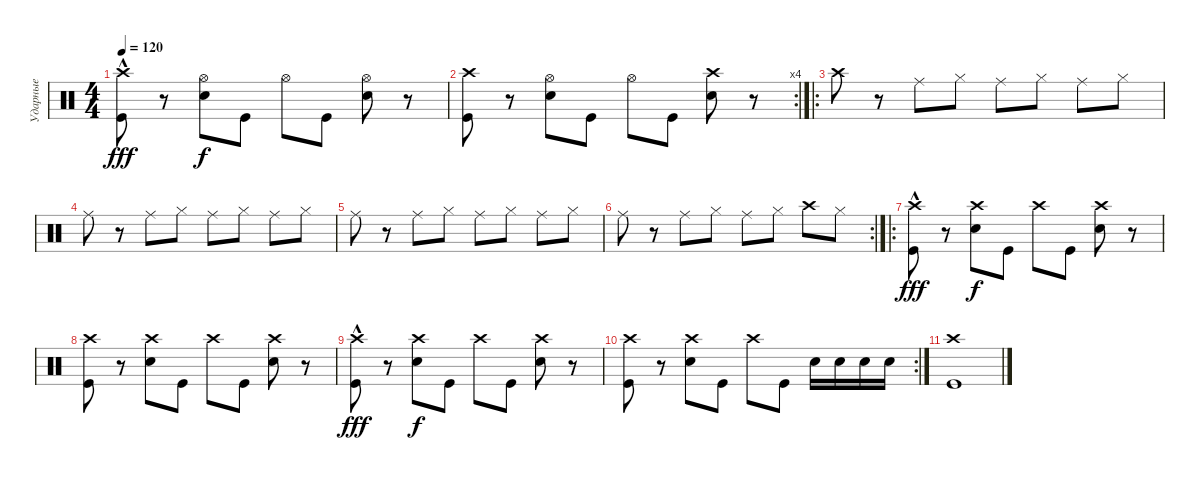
\track ("Ударные" "Ударные") {instrument percussion}
\staff {score}
\articulation defaults
\ts (4 4)
\tempo 120
\clef neutral
\ks c
("Kick (hit)" "Crash high (hit)"{hac}).8{dy fff} r.8 ("Snare (hit) 2" "Hi-Hat (open)").8{dy f} "Kick (hit)".8 "Hi-Hat (open)".8 "Kick (hit)".8 ("Snare (hit) 2" "Hi-Hat (open)").8 r.8 |
\rc 4
("Kick (hit)" "Crash high (hit)").8 r.8 ("Snare (hit) 2" "Hi-Hat (open)").8 "Kick (hit)".8 "Hi-Hat (open)".8 "Kick (hit)".8 ("Snare (hit) 2" "Crash high (hit)").8 r.8 |
\ro "Crash high (hit)".8
r.8 "Ride (middle)".8 "Hi-Hat (closed)".8 "Ride (middle)".8 "Hi-Hat (closed)".8 "Ride (middle)".8 "Hi-Hat (closed)".8 |
"Ride (middle)".8 r.8 "Ride (middle)".8 "Hi-Hat (closed)".8 "Ride (middle)".8 "Hi-Hat (closed)".8 "Ride (middle)".8 "Hi-Hat (closed)".8 |
"Ride (middle)".8 r.8 "Ride (middle)".8 "Hi-Hat (closed)".8 "Ride (middle)".8 "Hi-Hat (closed)".8 "Ride (middle)".8 "Hi-Hat (closed)".8 |
\rc 2 "Ride (middle)".8
r.8 "Ride (middle)".8 "Hi-Hat (closed)".8 "Ride (middle)".8 "Hi-Hat (closed)".8 "Crash high (hit)".8 "Hi-Hat (closed)".8 |
\ro
("Kick (hit)" "Crash high (hit)"{hac}).8{dy fff} r.8 ("Snare (hit) 2" "Crash high (hit)").8{dy f} "Kick (hit)".8 "Crash high (hit)".8 "Kick (hit)".8 ("Snare (hit) 2" "Crash high (hit)").8 r.8 |
("Kick (hit)" "Crash high (hit)").8 r.8 ("Snare (hit) 2" "Crash high (hit)").8 "Kick (hit)".8 "Crash high (hit)".8 "Kick (hit)".8 ("Snare (hit) 2" "Crash high (hit)").8 r.8 |
("Kick (hit)" "Crash high (hit)"{hac}).8{dy fff} r.8 ("Snare (hit) 2" "Crash high (hit)").8{dy f} "Kick (hit)".8 "Crash high (hit)".8 "Kick (hit)".8 ("Snare (hit) 2" "Crash high (hit)").8 r.8 |
\rc 2
("Kick (hit)" "Crash high (hit)").8 r.8 ("Snare (hit) 2" "Crash high (hit)").8 "Kick (hit)".8 "Crash high (hit)".8 "Kick (hit)".8 "Snare (hit) 2".16 "Snare (hit) 2".16 "Snare (hit) 2".16 "Snare (hit) 2".16 |
("Kick (hit)" "Crash high (hit)").1
